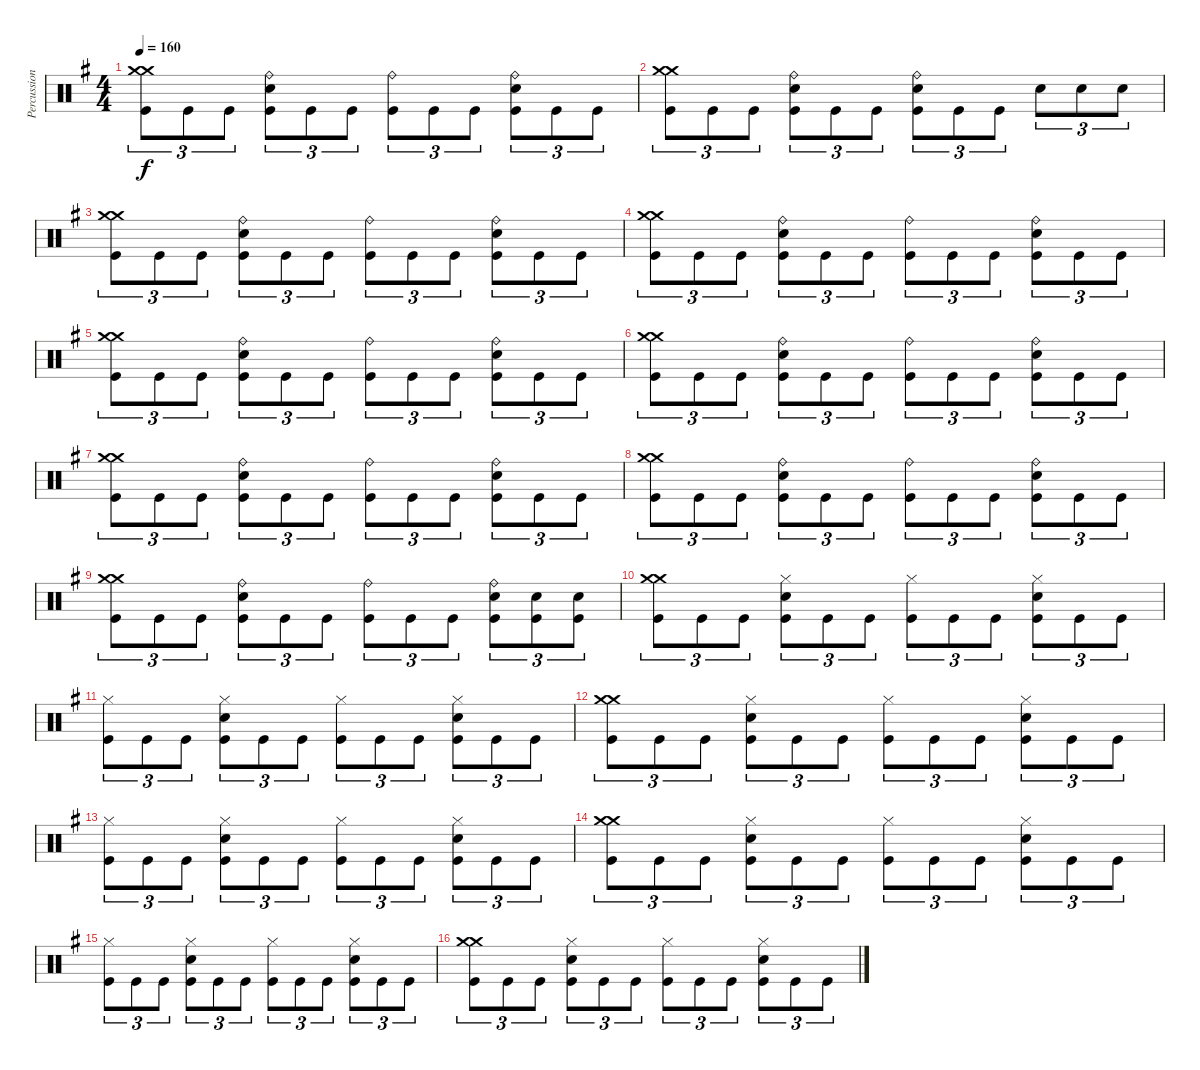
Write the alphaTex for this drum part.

\track ("Percussions" "Percussion") {instrument percussion}
\staff {score}
\articulation defaults
\ts (4 4)
\tempo 160
\clef neutral
\ks g
("Kick (hit)" "Crash medium (hit)" "Crash medium (hit)").8{tu (3 2) dy f} "Kick (hit)".8{tu (3 2)} "Kick (hit)".8{tu (3 2)} ("Kick (hit)" "Electric Snare (hit)" "Ride (bell)").8{tu (3 2)} "Kick (hit)".8{tu (3 2)} "Kick (hit)".8{tu (3 2)} ("Kick (hit)" "Ride (bell)").8{tu (3 2)} "Kick (hit)".8{tu (3 2)} "Kick (hit)".8{tu (3 2)} ("Kick (hit)" "Electric Snare (hit)" "Ride (bell)").8{tu (3 2)} "Kick (hit)".8{tu (3 2)} "Kick (hit)".8{tu (3 2)} |
("Kick (hit)" "Crash medium (hit)" "Crash medium (hit)").8{tu (3 2)} "Kick (hit)".8{tu (3 2)} "Kick (hit)".8{tu (3 2)} ("Kick (hit)" "Electric Snare (hit)" "Ride (bell)").8{tu (3 2)} "Kick (hit)".8{tu (3 2)} "Kick (hit)".8{tu (3 2)} ("Kick (hit)" "Electric Snare (hit)" "Ride (bell)").8{tu (3 2)} "Kick (hit)".8{tu (3 2)} "Kick (hit)".8{tu (3 2)} "Electric Snare (hit)".8{tu (3 2)} "Electric Snare (hit)".8{tu (3 2)} "Electric Snare (hit)".8{tu (3 2)} |
("Kick (hit)" "Crash medium (hit)" "Crash medium (hit)").8{tu (3 2)} "Kick (hit)".8{tu (3 2)} "Kick (hit)".8{tu (3 2)} ("Kick (hit)" "Electric Snare (hit)" "Ride (bell)").8{tu (3 2)} "Kick (hit)".8{tu (3 2)} "Kick (hit)".8{tu (3 2)} ("Kick (hit)" "Ride (bell)").8{tu (3 2)} "Kick (hit)".8{tu (3 2)} "Kick (hit)".8{tu (3 2)} ("Kick (hit)" "Electric Snare (hit)" "Ride (bell)").8{tu (3 2)} "Kick (hit)".8{tu (3 2)} "Kick (hit)".8{tu (3 2)} |
("Kick (hit)" "Crash medium (hit)" "Crash medium (hit)").8{tu (3 2)} "Kick (hit)".8{tu (3 2)} "Kick (hit)".8{tu (3 2)} ("Kick (hit)" "Electric Snare (hit)" "Ride (bell)").8{tu (3 2)} "Kick (hit)".8{tu (3 2)} "Kick (hit)".8{tu (3 2)} ("Kick (hit)" "Ride (bell)").8{tu (3 2)} "Kick (hit)".8{tu (3 2)} "Kick (hit)".8{tu (3 2)} ("Kick (hit)" "Electric Snare (hit)" "Ride (bell)").8{tu (3 2)} "Kick (hit)".8{tu (3 2)} "Kick (hit)".8{tu (3 2)} |
("Kick (hit)" "Crash medium (hit)" "Crash medium (hit)").8{tu (3 2)} "Kick (hit)".8{tu (3 2)} "Kick (hit)".8{tu (3 2)} ("Kick (hit)" "Electric Snare (hit)" "Ride (bell)").8{tu (3 2)} "Kick (hit)".8{tu (3 2)} "Kick (hit)".8{tu (3 2)} ("Kick (hit)" "Ride (bell)").8{tu (3 2)} "Kick (hit)".8{tu (3 2)} "Kick (hit)".8{tu (3 2)} ("Kick (hit)" "Electric Snare (hit)" "Ride (bell)").8{tu (3 2)} "Kick (hit)".8{tu (3 2)} "Kick (hit)".8{tu (3 2)} |
("Kick (hit)" "Crash medium (hit)" "Crash medium (hit)").8{tu (3 2)} "Kick (hit)".8{tu (3 2)} "Kick (hit)".8{tu (3 2)} ("Kick (hit)" "Electric Snare (hit)" "Ride (bell)").8{tu (3 2)} "Kick (hit)".8{tu (3 2)} "Kick (hit)".8{tu (3 2)} ("Kick (hit)" "Ride (bell)").8{tu (3 2)} "Kick (hit)".8{tu (3 2)} "Kick (hit)".8{tu (3 2)} ("Kick (hit)" "Electric Snare (hit)" "Ride (bell)").8{tu (3 2)} "Kick (hit)".8{tu (3 2)} "Kick (hit)".8{tu (3 2)} |
("Kick (hit)" "Crash medium (hit)" "Crash medium (hit)").8{tu (3 2)} "Kick (hit)".8{tu (3 2)} "Kick (hit)".8{tu (3 2)} ("Kick (hit)" "Electric Snare (hit)" "Ride (bell)").8{tu (3 2)} "Kick (hit)".8{tu (3 2)} "Kick (hit)".8{tu (3 2)} ("Kick (hit)" "Ride (bell)").8{tu (3 2)} "Kick (hit)".8{tu (3 2)} "Kick (hit)".8{tu (3 2)} ("Kick (hit)" "Electric Snare (hit)" "Ride (bell)").8{tu (3 2)} "Kick (hit)".8{tu (3 2)} "Kick (hit)".8{tu (3 2)} |
("Kick (hit)" "Crash medium (hit)" "Crash medium (hit)").8{tu (3 2)} "Kick (hit)".8{tu (3 2)} "Kick (hit)".8{tu (3 2)} ("Kick (hit)" "Electric Snare (hit)" "Ride (bell)").8{tu (3 2)} "Kick (hit)".8{tu (3 2)} "Kick (hit)".8{tu (3 2)} ("Kick (hit)" "Ride (bell)").8{tu (3 2)} "Kick (hit)".8{tu (3 2)} "Kick (hit)".8{tu (3 2)} ("Kick (hit)" "Electric Snare (hit)" "Ride (bell)").8{tu (3 2)} "Kick (hit)".8{tu (3 2)} "Kick (hit)".8{tu (3 2)} |
("Kick (hit)" "Crash medium (hit)" "Crash medium (hit)").8{tu (3 2)} "Kick (hit)".8{tu (3 2)} "Kick (hit)".8{tu (3 2)} ("Kick (hit)" "Electric Snare (hit)" "Ride (bell)").8{tu (3 2)} "Kick (hit)".8{tu (3 2)} "Kick (hit)".8{tu (3 2)} ("Kick (hit)" "Ride (bell)").8{tu (3 2)} "Kick (hit)".8{tu (3 2)} "Kick (hit)".8{tu (3 2)} ("Kick (hit)" "Electric Snare (hit)" "Ride (bell)").8{tu (3 2)} ("Kick (hit)" "Electric Snare (hit)").8{tu (3 2)} ("Kick (hit)" "Electric Snare (hit)").8{tu (3 2)} |
("Kick (hit)" "Crash medium (hit)" "Crash medium (hit)").8{tu (3 2)} "Kick (hit)".8{tu (3 2)} "Kick (hit)".8{tu (3 2)} ("Kick (hit)" "Electric Snare (hit)" "Hi-Hat (closed)").8{tu (3 2)} "Kick (hit)".8{tu (3 2)} "Kick (hit)".8{tu (3 2)} ("Kick (hit)" "Hi-Hat (closed)").8{tu (3 2)} "Kick (hit)".8{tu (3 2)} "Kick (hit)".8{tu (3 2)} ("Kick (hit)" "Electric Snare (hit)" "Hi-Hat (closed)").8{tu (3 2)} "Kick (hit)".8{tu (3 2)} "Kick (hit)".8{tu (3 2)} |
("Kick (hit)" "Hi-Hat (closed)").8{tu (3 2)} "Kick (hit)".8{tu (3 2)} "Kick (hit)".8{tu (3 2)} ("Kick (hit)" "Electric Snare (hit)" "Hi-Hat (closed)").8{tu (3 2)} "Kick (hit)".8{tu (3 2)} "Kick (hit)".8{tu (3 2)} ("Kick (hit)" "Hi-Hat (closed)").8{tu (3 2)} "Kick (hit)".8{tu (3 2)} "Kick (hit)".8{tu (3 2)} ("Kick (hit)" "Electric Snare (hit)" "Hi-Hat (closed)").8{tu (3 2)} "Kick (hit)".8{tu (3 2)} "Kick (hit)".8{tu (3 2)} |
("Kick (hit)" "Crash medium (hit)" "Crash medium (hit)").8{tu (3 2)} "Kick (hit)".8{tu (3 2)} "Kick (hit)".8{tu (3 2)} ("Kick (hit)" "Electric Snare (hit)" "Hi-Hat (closed)").8{tu (3 2)} "Kick (hit)".8{tu (3 2)} "Kick (hit)".8{tu (3 2)} ("Kick (hit)" "Hi-Hat (closed)").8{tu (3 2)} "Kick (hit)".8{tu (3 2)} "Kick (hit)".8{tu (3 2)} ("Kick (hit)" "Electric Snare (hit)" "Hi-Hat (closed)").8{tu (3 2)} "Kick (hit)".8{tu (3 2)} "Kick (hit)".8{tu (3 2)} |
("Kick (hit)" "Hi-Hat (closed)").8{tu (3 2)} "Kick (hit)".8{tu (3 2)} "Kick (hit)".8{tu (3 2)} ("Kick (hit)" "Electric Snare (hit)" "Hi-Hat (closed)").8{tu (3 2)} "Kick (hit)".8{tu (3 2)} "Kick (hit)".8{tu (3 2)} ("Kick (hit)" "Hi-Hat (closed)").8{tu (3 2)} "Kick (hit)".8{tu (3 2)} "Kick (hit)".8{tu (3 2)} ("Kick (hit)" "Electric Snare (hit)" "Hi-Hat (closed)").8{tu (3 2)} "Kick (hit)".8{tu (3 2)} "Kick (hit)".8{tu (3 2)} |
("Kick (hit)" "Crash medium (hit)" "Crash medium (hit)").8{tu (3 2)} "Kick (hit)".8{tu (3 2)} "Kick (hit)".8{tu (3 2)} ("Kick (hit)" "Electric Snare (hit)" "Hi-Hat (closed)").8{tu (3 2)} "Kick (hit)".8{tu (3 2)} "Kick (hit)".8{tu (3 2)} ("Kick (hit)" "Hi-Hat (closed)").8{tu (3 2)} "Kick (hit)".8{tu (3 2)} "Kick (hit)".8{tu (3 2)} ("Kick (hit)" "Electric Snare (hit)" "Hi-Hat (closed)").8{tu (3 2)} "Kick (hit)".8{tu (3 2)} "Kick (hit)".8{tu (3 2)} |
("Kick (hit)" "Hi-Hat (closed)").8{tu (3 2)} "Kick (hit)".8{tu (3 2)} "Kick (hit)".8{tu (3 2)} ("Kick (hit)" "Electric Snare (hit)" "Hi-Hat (closed)").8{tu (3 2)} "Kick (hit)".8{tu (3 2)} "Kick (hit)".8{tu (3 2)} ("Kick (hit)" "Hi-Hat (closed)").8{tu (3 2)} "Kick (hit)".8{tu (3 2)} "Kick (hit)".8{tu (3 2)} ("Kick (hit)" "Electric Snare (hit)" "Hi-Hat (closed)").8{tu (3 2)} "Kick (hit)".8{tu (3 2)} "Kick (hit)".8{tu (3 2)} |
("Kick (hit)" "Crash medium (hit)" "Crash medium (hit)").8{tu (3 2)} "Kick (hit)".8{tu (3 2)} "Kick (hit)".8{tu (3 2)} ("Kick (hit)" "Electric Snare (hit)" "Hi-Hat (closed)").8{tu (3 2)} "Kick (hit)".8{tu (3 2)} "Kick (hit)".8{tu (3 2)} ("Kick (hit)" "Hi-Hat (closed)").8{tu (3 2)} "Kick (hit)".8{tu (3 2)} "Kick (hit)".8{tu (3 2)} ("Kick (hit)" "Electric Snare (hit)" "Hi-Hat (closed)").8{tu (3 2)} "Kick (hit)".8{tu (3 2)} "Kick (hit)".8{tu (3 2)}
